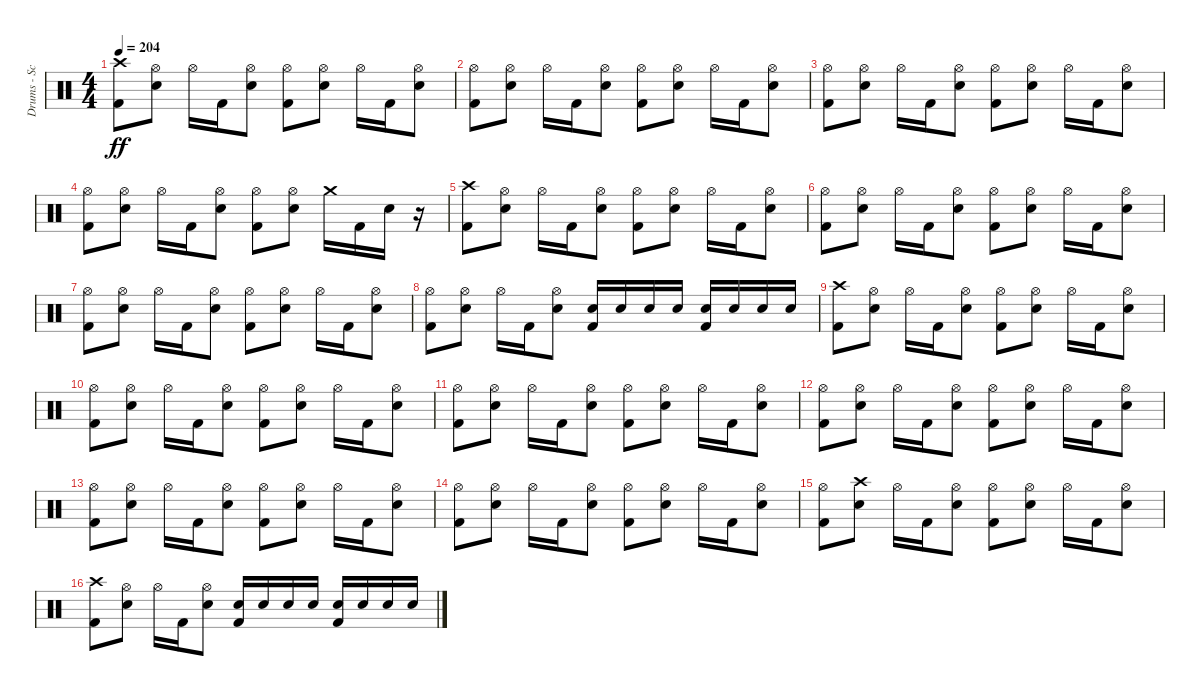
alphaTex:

\track ("Drums - Scott" "Drums - Sc") {instrument percussion}
\staff {score}
\articulation defaults
\ts (4 4)
\tempo 204
\clef neutral
\ks c
("Kick (hit) 2" "Crash high (hit)").8{dy ff} ("Electric Snare (hit)" "Hi-Hat (open)").8 "Hi-Hat (open)".16 "Kick (hit) 2".16 ("Electric Snare (hit)" "Hi-Hat (open)").8 ("Hi-Hat (open)" "Kick (hit) 2").8 ("Electric Snare (hit)" "Hi-Hat (open)").8 "Hi-Hat (open)".16 "Kick (hit) 2".16 ("Electric Snare (hit)" "Hi-Hat (open)").8 |
("Hi-Hat (open)" "Kick (hit) 2").8 ("Electric Snare (hit)" "Hi-Hat (open)").8 "Hi-Hat (open)".16 "Kick (hit) 2".16 ("Electric Snare (hit)" "Hi-Hat (open)").8 ("Hi-Hat (open)" "Kick (hit) 2").8 ("Electric Snare (hit)" "Hi-Hat (open)").8 "Hi-Hat (open)".16 "Kick (hit) 2".16 ("Electric Snare (hit)" "Hi-Hat (open)").8 |
("Hi-Hat (open)" "Kick (hit) 2").8 ("Electric Snare (hit)" "Hi-Hat (open)").8 "Hi-Hat (open)".16 "Kick (hit) 2".16 ("Electric Snare (hit)" "Hi-Hat (open)").8 ("Hi-Hat (open)" "Kick (hit) 2").8 ("Electric Snare (hit)" "Hi-Hat (open)").8 "Hi-Hat (open)".16 "Kick (hit) 2".16 ("Electric Snare (hit)" "Hi-Hat (open)").8 |
("Hi-Hat (open)" "Kick (hit) 2").8 ("Electric Snare (hit)" "Hi-Hat (open)").8 "Hi-Hat (open)".16 "Kick (hit) 2".16 ("Electric Snare (hit)" "Hi-Hat (open)").8 ("Hi-Hat (open)" "Kick (hit) 2").8 ("Electric Snare (hit)" "Hi-Hat (open)").8 "Crash medium (hit)".16 "Kick (hit) 2".16 "Electric Snare (hit)".16 r.16 |
("Crash high (hit)" "Kick (hit) 2").8 ("Electric Snare (hit)" "Hi-Hat (open)").8 "Hi-Hat (open)".16 "Kick (hit) 2".16 ("Electric Snare (hit)" "Hi-Hat (open)").8 ("Hi-Hat (open)" "Kick (hit) 2").8 ("Electric Snare (hit)" "Hi-Hat (open)").8 "Hi-Hat (open)".16 "Kick (hit) 2".16 ("Electric Snare (hit)" "Hi-Hat (open)").8 |
("Hi-Hat (open)" "Kick (hit) 2").8 ("Electric Snare (hit)" "Hi-Hat (open)").8 "Hi-Hat (open)".16 "Kick (hit) 2".16 ("Electric Snare (hit)" "Hi-Hat (open)").8 ("Hi-Hat (open)" "Kick (hit) 2").8 ("Electric Snare (hit)" "Hi-Hat (open)").8 "Hi-Hat (open)".16 "Kick (hit) 2".16 ("Electric Snare (hit)" "Hi-Hat (open)").8 |
("Hi-Hat (open)" "Kick (hit) 2").8 ("Electric Snare (hit)" "Hi-Hat (open)").8 "Hi-Hat (open)".16 "Kick (hit) 2".16 ("Electric Snare (hit)" "Hi-Hat (open)").8 ("Hi-Hat (open)" "Kick (hit) 2").8 ("Electric Snare (hit)" "Hi-Hat (open)").8 "Hi-Hat (open)".16 "Kick (hit) 2".16 ("Electric Snare (hit)" "Hi-Hat (open)").8 |
("Hi-Hat (open)" "Kick (hit) 2").8 ("Electric Snare (hit)" "Hi-Hat (open)").8 "Hi-Hat (open)".16 "Kick (hit) 2".16 ("Electric Snare (hit)" "Hi-Hat (open)").8 ("Kick (hit) 2" "Electric Snare (hit)").16 "Electric Snare (hit)".16 "Electric Snare (hit)".16 "Electric Snare (hit)".16 ("Kick (hit) 2" "Electric Snare (hit)").16 "Electric Snare (hit)".16 "Electric Snare (hit)".16 "Electric Snare (hit)".16 |
("Crash high (hit)" "Kick (hit) 2").8 ("Electric Snare (hit)" "Hi-Hat (open)").8 "Hi-Hat (open)".16 "Kick (hit) 2".16 ("Electric Snare (hit)" "Hi-Hat (open)").8 ("Hi-Hat (open)" "Kick (hit) 2").8 ("Electric Snare (hit)" "Hi-Hat (open)").8 "Hi-Hat (open)".16 "Kick (hit) 2".16 ("Electric Snare (hit)" "Hi-Hat (open)").8 |
("Hi-Hat (open)" "Kick (hit) 2").8 ("Electric Snare (hit)" "Hi-Hat (open)").8 "Hi-Hat (open)".16 "Kick (hit) 2".16 ("Electric Snare (hit)" "Hi-Hat (open)").8 ("Hi-Hat (open)" "Kick (hit) 2").8 ("Electric Snare (hit)" "Hi-Hat (open)").8 "Hi-Hat (open)".16 "Kick (hit) 2".16 ("Electric Snare (hit)" "Hi-Hat (open)").8 |
("Hi-Hat (open)" "Kick (hit) 2").8 ("Electric Snare (hit)" "Hi-Hat (open)").8 "Hi-Hat (open)".16 "Kick (hit) 2".16 ("Electric Snare (hit)" "Hi-Hat (open)").8 ("Hi-Hat (open)" "Kick (hit) 2").8 ("Electric Snare (hit)" "Hi-Hat (open)").8 "Hi-Hat (open)".16 "Kick (hit) 2".16 ("Electric Snare (hit)" "Hi-Hat (open)").8 |
("Hi-Hat (open)" "Kick (hit) 2").8 ("Electric Snare (hit)" "Hi-Hat (open)").8 "Hi-Hat (open)".16 "Kick (hit) 2".16 ("Electric Snare (hit)" "Hi-Hat (open)").8 ("Hi-Hat (open)" "Kick (hit) 2").8 ("Electric Snare (hit)" "Hi-Hat (open)").8 "Hi-Hat (open)".16 "Kick (hit) 2".16 ("Electric Snare (hit)" "Hi-Hat (open)").8 |
("Hi-Hat (open)" "Kick (hit) 2").8 ("Electric Snare (hit)" "Hi-Hat (open)").8 "Hi-Hat (open)".16 "Kick (hit) 2".16 ("Electric Snare (hit)" "Hi-Hat (open)").8 ("Hi-Hat (open)" "Kick (hit) 2").8 ("Electric Snare (hit)" "Hi-Hat (open)").8 "Hi-Hat (open)".16 "Kick (hit) 2".16 ("Electric Snare (hit)" "Hi-Hat (open)").8 |
("Hi-Hat (open)" "Kick (hit) 2").8 ("Electric Snare (hit)" "Hi-Hat (open)").8 "Hi-Hat (open)".16 "Kick (hit) 2".16 ("Electric Snare (hit)" "Hi-Hat (open)").8 ("Hi-Hat (open)" "Kick (hit) 2").8 ("Electric Snare (hit)" "Hi-Hat (open)").8 "Hi-Hat (open)".16 "Kick (hit) 2".16 ("Electric Snare (hit)" "Hi-Hat (open)").8 |
("Kick (hit) 2" "Hi-Hat (open)").8 ("Electric Snare (hit)" "Crash high (hit)").8 "Hi-Hat (open)".16 "Kick (hit) 2".16 ("Electric Snare (hit)" "Hi-Hat (open)").8 ("Hi-Hat (open)" "Kick (hit) 2").8 ("Electric Snare (hit)" "Hi-Hat (open)").8 "Hi-Hat (open)".16 "Kick (hit) 2".16 ("Electric Snare (hit)" "Hi-Hat (open)").8 |
("Crash high (hit)" "Kick (hit) 2").8 ("Electric Snare (hit)" "Hi-Hat (open)").8 "Hi-Hat (open)".16 "Kick (hit) 2".16 ("Electric Snare (hit)" "Hi-Hat (open)").8 ("Kick (hit) 2" "Electric Snare (hit)").16 "Electric Snare (hit)".16 "Electric Snare (hit)".16 "Electric Snare (hit)".16 ("Kick (hit) 2" "Electric Snare (hit)").16 "Electric Snare (hit)".16 "Electric Snare (hit)".16 "Electric Snare (hit)".16
